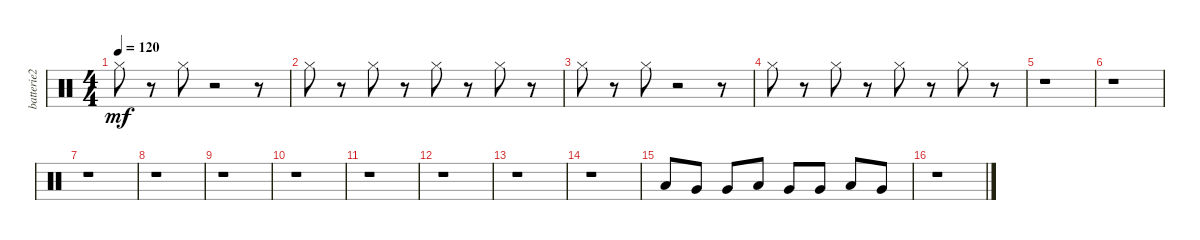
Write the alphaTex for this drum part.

\track ("batterie2" "batterie2") {instrument percussion}
\staff {score}
\articulation defaults
\ts (4 4)
\tempo 120
\clef neutral
\ks c "Hi-Hat (closed)".8{dy mf}
r.8 "Hi-Hat (closed)".8 r.2 r.8 |
"Hi-Hat (closed)".8 r.8 "Hi-Hat (closed)".8 r.8 "Hi-Hat (closed)".8 r.8 "Hi-Hat (closed)".8 r.8 |
"Hi-Hat (closed)".8 r.8 "Hi-Hat (closed)".8 r.2 r.8 |
"Hi-Hat (closed)".8 r.8 "Hi-Hat (closed)".8 r.8 "Hi-Hat (closed)".8 r.8 "Hi-Hat (closed)".8 r.8 |
r.1 |
r.1 |
r.1 |
r.1 |
r.1 |
r.1 |
r.1 |
r.1 |
r.1 |
r.1 |
"Low Tom (hit)".8 "Very Low Tom (hit)".8 "Very Low Tom (hit)".8 "Low Tom (hit)".8 "Very Low Tom (hit)".8 "Very Low Tom (hit)".8 "Low Tom (hit)".8 "Very Low Tom (hit)".8 |
r.1
